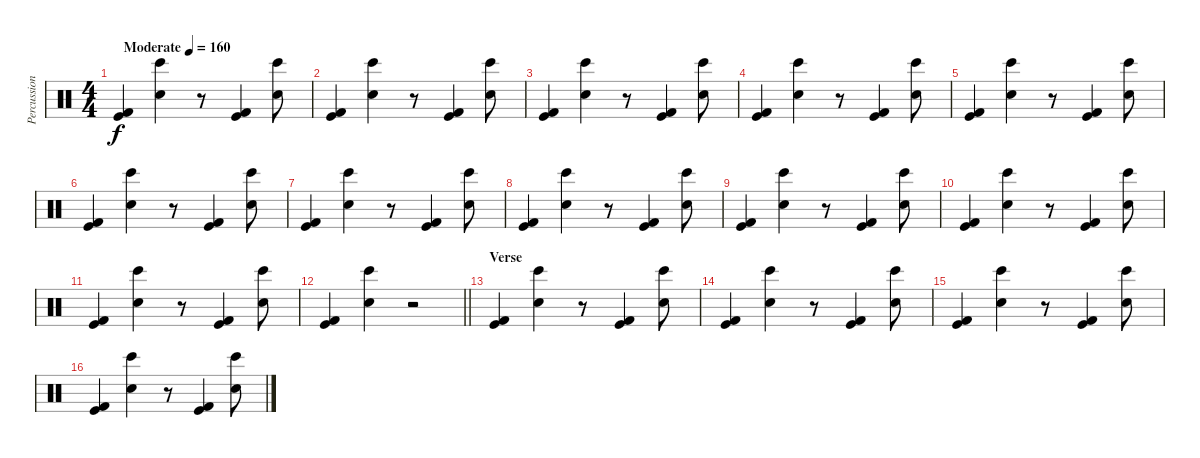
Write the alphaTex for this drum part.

\track ("Percussion" "Percussion") {instrument percussion}
\staff {score}
\articulation defaults
\ts (4 4)
\tempo (160 "Moderate")
\clef neutral
\ks c
("Kick (hit)" "Kick (hit) 2").4{dy f} ("Hand Clap (hit)" "Bongo High (hit)").4 r.8 ("Kick (hit)" "Kick (hit) 2").4 ("Hand Clap (hit)" "Bongo High (hit)").8 |
("Kick (hit)" "Kick (hit) 2").4 ("Hand Clap (hit)" "Bongo High (hit)").4 r.8 ("Kick (hit)" "Kick (hit) 2").4 ("Hand Clap (hit)" "Bongo High (hit)").8 |
("Kick (hit)" "Kick (hit) 2").4 ("Hand Clap (hit)" "Bongo High (hit)").4 r.8 ("Kick (hit)" "Kick (hit) 2").4 ("Hand Clap (hit)" "Bongo High (hit)").8 |
("Kick (hit)" "Kick (hit) 2").4 ("Hand Clap (hit)" "Bongo High (hit)").4 r.8 ("Kick (hit)" "Kick (hit) 2").4 ("Hand Clap (hit)" "Bongo High (hit)").8 |
("Kick (hit)" "Kick (hit) 2").4 ("Hand Clap (hit)" "Bongo High (hit)").4 r.8 ("Kick (hit)" "Kick (hit) 2").4 ("Hand Clap (hit)" "Bongo High (hit)").8 |
("Kick (hit)" "Kick (hit) 2").4 ("Hand Clap (hit)" "Bongo High (hit)").4 r.8 ("Kick (hit)" "Kick (hit) 2").4 ("Hand Clap (hit)" "Bongo High (hit)").8 |
("Kick (hit)" "Kick (hit) 2").4 ("Hand Clap (hit)" "Bongo High (hit)").4 r.8 ("Kick (hit)" "Kick (hit) 2").4 ("Hand Clap (hit)" "Bongo High (hit)").8 |
("Kick (hit)" "Kick (hit) 2").4 ("Hand Clap (hit)" "Bongo High (hit)").4 r.8 ("Kick (hit)" "Kick (hit) 2").4 ("Hand Clap (hit)" "Bongo High (hit)").8 |
("Kick (hit)" "Kick (hit) 2").4 ("Hand Clap (hit)" "Bongo High (hit)").4 r.8 ("Kick (hit)" "Kick (hit) 2").4 ("Hand Clap (hit)" "Bongo High (hit)").8 |
("Kick (hit)" "Kick (hit) 2").4 ("Hand Clap (hit)" "Bongo High (hit)").4 r.8 ("Kick (hit)" "Kick (hit) 2").4 ("Hand Clap (hit)" "Bongo High (hit)").8 |
("Kick (hit)" "Kick (hit) 2").4 ("Hand Clap (hit)" "Bongo High (hit)").4 r.8 ("Kick (hit)" "Kick (hit) 2").4 ("Hand Clap (hit)" "Bongo High (hit)").8 |
\barLineRight lightlight
("Kick (hit)" "Kick (hit) 2").4 ("Hand Clap (hit)" "Bongo High (hit)").4 r.2 |
\section ("" "Verse")
("Kick (hit)" "Kick (hit) 2").4 ("Hand Clap (hit)" "Bongo High (hit)").4 r.8 ("Kick (hit)" "Kick (hit) 2").4 ("Hand Clap (hit)" "Bongo High (hit)").8 |
("Kick (hit)" "Kick (hit) 2").4 ("Hand Clap (hit)" "Bongo High (hit)").4 r.8 ("Kick (hit)" "Kick (hit) 2").4 ("Hand Clap (hit)" "Bongo High (hit)").8 |
("Kick (hit)" "Kick (hit) 2").4 ("Hand Clap (hit)" "Bongo High (hit)").4 r.8 ("Kick (hit)" "Kick (hit) 2").4 ("Hand Clap (hit)" "Bongo High (hit)").8 |
("Kick (hit)" "Kick (hit) 2").4 ("Hand Clap (hit)" "Bongo High (hit)").4 r.8 ("Kick (hit)" "Kick (hit) 2").4 ("Hand Clap (hit)" "Bongo High (hit)").8
